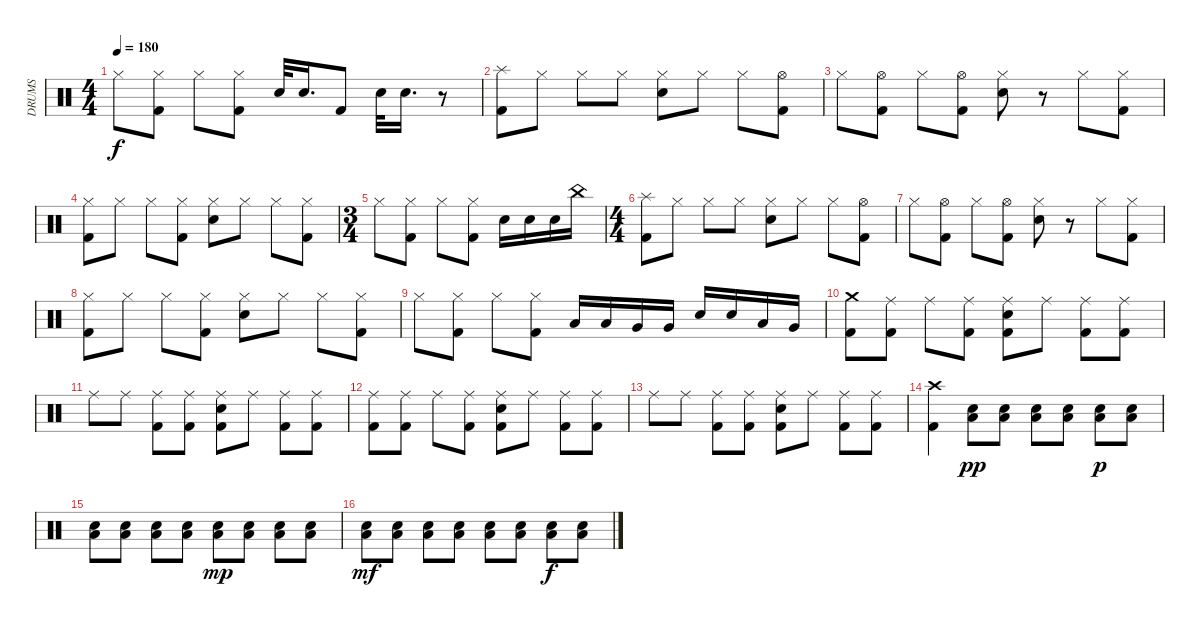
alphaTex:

\track ("DRUMS" "DRUMS") {instrument percussion}
\staff {score}
\articulation defaults
\ts (4 4)
\tempo 180
\clef neutral
\ks c "Hi-Hat (closed)".8{dy f}
("Hi-Hat (closed)" "Kick (hit) 2").8 "Hi-Hat (closed)".8 ("Hi-Hat (closed)" "Kick (hit) 2").8 "Electric Snare (hit)".32 "Electric Snare (hit)".16{d} "Kick (hit) 2".8 "Electric Snare (hit)".32 "Electric Snare (hit)".16{d} r.8 |
("Splash (hit)" "Kick (hit) 2").8 "Hi-Hat (closed)".8 "Hi-Hat (closed)".8 "Hi-Hat (closed)".8 ("Hi-Hat (closed)" "Electric Snare (hit)").8 "Hi-Hat (closed)".8 "Hi-Hat (closed)".8 ("Hi-Hat (open)" "Kick (hit) 2").8 |
"Hi-Hat (closed)".8 ("Hi-Hat (open)" "Kick (hit) 2").8 "Hi-Hat (closed)".8 ("Hi-Hat (open)" "Kick (hit) 2").8 ("Hi-Hat (closed)" "Electric Snare (hit)").8 r.8 "Hi-Hat (closed)".8 ("Hi-Hat (closed)" "Kick (hit) 2").8 |
("Hi-Hat (closed)" "Kick (hit) 2").8 "Hi-Hat (closed)".8 "Hi-Hat (closed)".8 ("Hi-Hat (closed)" "Kick (hit) 2").8 ("Hi-Hat (closed)" "Electric Snare (hit)").8 "Hi-Hat (closed)".8 "Hi-Hat (closed)".8 ("Hi-Hat (closed)" "Kick (hit) 2").8 |
\ts (3 4)
"Hi-Hat (closed)".8 ("Hi-Hat (closed)" "Kick (hit) 2").8 "Hi-Hat (closed)".8 ("Hi-Hat (closed)" "Kick (hit) 2").8 "Electric Snare (hit)".16 "Electric Snare (hit)".16 "Electric Snare (hit)".16 "China (hit)".16 |
\ts (4 4)
("Splash (hit)" "Kick (hit) 2").8 "Hi-Hat (closed)".8 "Hi-Hat (closed)".8 "Hi-Hat (closed)".8 ("Hi-Hat (closed)" "Electric Snare (hit)").8 "Hi-Hat (closed)".8 "Hi-Hat (closed)".8 ("Hi-Hat (open)" "Kick (hit) 2").8 |
"Hi-Hat (closed)".8 ("Hi-Hat (open)" "Kick (hit) 2").8 "Hi-Hat (closed)".8 ("Hi-Hat (open)" "Kick (hit) 2").8 ("Hi-Hat (closed)" "Electric Snare (hit)").8 r.8 "Hi-Hat (closed)".8 ("Hi-Hat (closed)" "Kick (hit) 2").8 |
("Hi-Hat (closed)" "Kick (hit) 2").8 "Hi-Hat (closed)".8 "Hi-Hat (closed)".8 ("Hi-Hat (closed)" "Kick (hit) 2").8 ("Hi-Hat (closed)" "Electric Snare (hit)").8 "Hi-Hat (closed)".8 "Hi-Hat (closed)".8 ("Hi-Hat (closed)" "Kick (hit) 2").8 |
"Hi-Hat (closed)".8 ("Hi-Hat (closed)" "Kick (hit) 2").8 "Hi-Hat (closed)".8 ("Hi-Hat (closed)" "Kick (hit) 2").8 "Low Tom (hit)".16 "Low Tom (hit)".16 "Very Low Tom (hit)".16 "Very Low Tom (hit)".16 "Electric Snare (hit)".16 "Electric Snare (hit)".16 "Low Tom (hit)".16 "Very Low Tom (hit)".16 |
("Crash medium (hit)" "Kick (hit) 2").8 ("Ride (middle)" "Kick (hit) 2").8 "Ride (middle)".8 ("Ride (middle)" "Kick (hit) 2").8 ("Ride (middle)" "Electric Snare (hit)" "Kick (hit) 2").8 "Ride (middle)".8 ("Ride (middle)" "Kick (hit) 2").8 ("Ride (middle)" "Kick (hit) 2").8 |
"Ride (middle)".8 "Ride (middle)".8 ("Ride (middle)" "Kick (hit) 2").8 ("Ride (middle)" "Kick (hit) 2").8 ("Ride (middle)" "Electric Snare (hit)" "Kick (hit) 2").8 "Ride (middle)".8 ("Ride (middle)" "Kick (hit) 2").8 ("Ride (middle)" "Kick (hit) 2").8 |
("Ride (middle)" "Kick (hit) 2").8 ("Ride (middle)" "Kick (hit) 2").8 "Ride (middle)".8 ("Ride (middle)" "Kick (hit) 2").8 ("Ride (middle)" "Electric Snare (hit)" "Kick (hit) 2").8 "Ride (middle)".8 ("Ride (middle)" "Kick (hit) 2").8 ("Ride (middle)" "Kick (hit) 2").8 |
"Ride (middle)".8 "Ride (middle)".8 ("Ride (middle)" "Kick (hit) 2").8 ("Ride (middle)" "Kick (hit) 2").8 ("Ride (middle)" "Electric Snare (hit)" "Kick (hit) 2").8 "Ride (middle)".8 ("Ride (middle)" "Kick (hit) 2").8 ("Ride (middle)" "Kick (hit) 2").8 |
("Crash high (hit)" "Kick (hit) 2").4 ("Electric Snare (hit)" "Low Floor Tom (hit)").8{dy pp} ("Electric Snare (hit)" "Low Floor Tom (hit)").8 ("Electric Snare (hit)" "Low Floor Tom (hit)").8 ("Electric Snare (hit)" "Low Floor Tom (hit)").8 ("Electric Snare (hit)" "Low Floor Tom (hit)").8{dy p} ("Electric Snare (hit)" "Low Floor Tom (hit)").8 |
("Electric Snare (hit)" "Low Floor Tom (hit)").8 ("Electric Snare (hit)" "Low Floor Tom (hit)").8 ("Electric Snare (hit)" "Low Floor Tom (hit)").8 ("Electric Snare (hit)" "Low Floor Tom (hit)").8 ("Electric Snare (hit)" "Low Floor Tom (hit)").8{dy mp} ("Electric Snare (hit)" "Low Floor Tom (hit)").8 ("Electric Snare (hit)" "Low Floor Tom (hit)").8 ("Electric Snare (hit)" "Low Floor Tom (hit)").8 |
("Electric Snare (hit)" "Low Floor Tom (hit)").8{dy mf} ("Electric Snare (hit)" "Low Floor Tom (hit)").8 ("Electric Snare (hit)" "Low Floor Tom (hit)").8 ("Electric Snare (hit)" "Low Floor Tom (hit)").8 ("Electric Snare (hit)" "Low Floor Tom (hit)").8 ("Electric Snare (hit)" "Low Floor Tom (hit)").8 ("Electric Snare (hit)" "Low Floor Tom (hit)").8{dy f} ("Electric Snare (hit)" "Low Floor Tom (hit)").8
